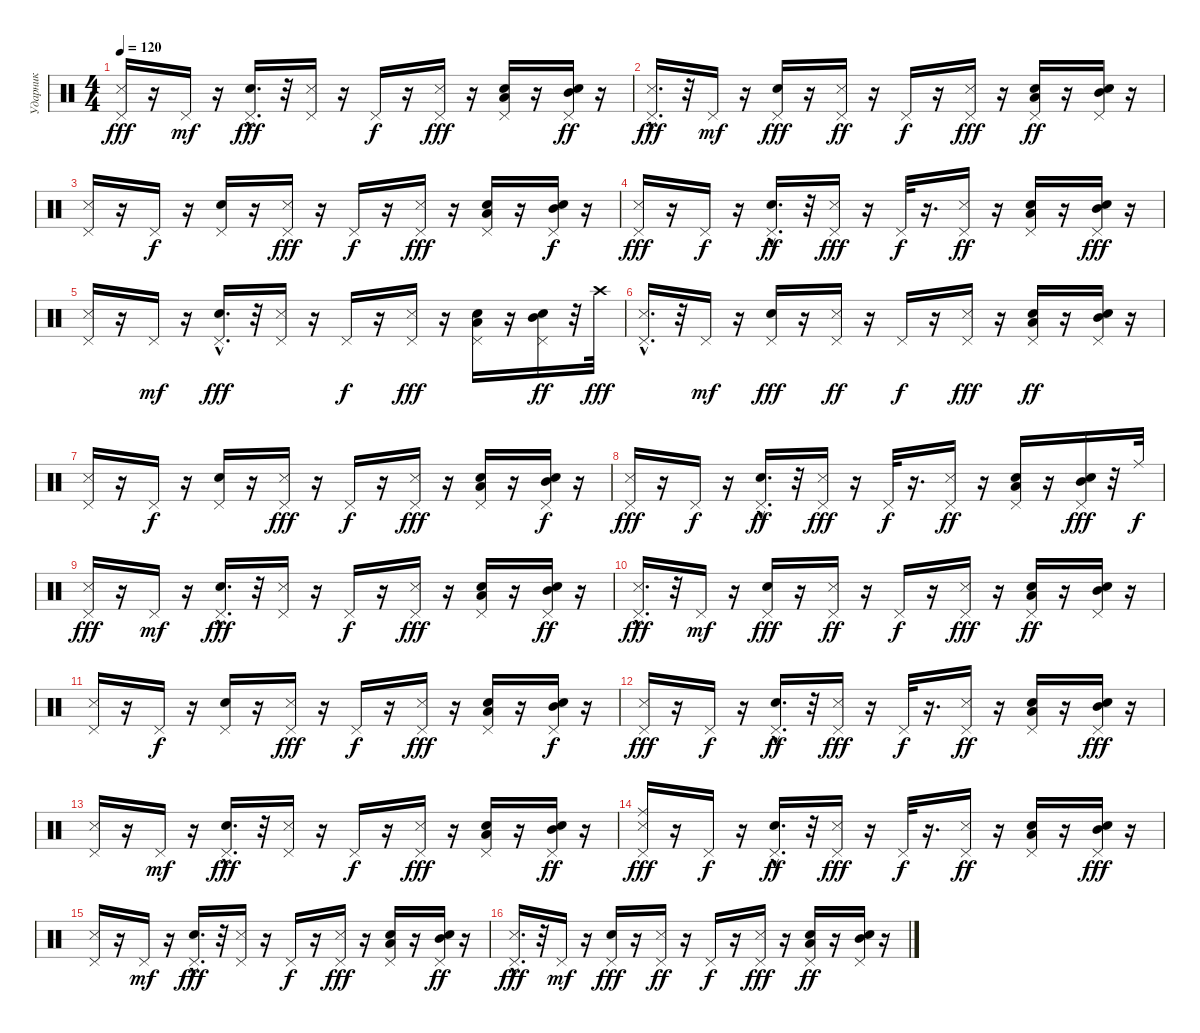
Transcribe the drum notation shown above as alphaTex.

\track ("Ударник" "Ударник") {instrument percussion}
\staff {score}
\articulation defaults
\ts (4 4)
\tempo 120
\clef neutral
\ks c
("Pedal Hi-Hat (hit)" "Metronome (hit)").16{dy fff} r.16 "Pedal Hi-Hat (hit)".16{dy mf} r.16 ("Pedal Hi-Hat (hit)" "Snare (hit) 2"{hac}).16{d dy fff} r.32 ("Pedal Hi-Hat (hit)" "Metronome (hit)").16 r.16 "Pedal Hi-Hat (hit)".16{dy f} r.16 ("Pedal Hi-Hat (hit)" "Metronome (hit)").16{dy fff} r.16 ("Low Tom (hit)" "Pedal Hi-Hat (hit)" "Snare (hit) 2").16 r.16 ("Mid Tom (hit)" "Pedal Hi-Hat (hit)" "Snare (hit) 2").16{dy ff} r.16 |
("Pedal Hi-Hat (hit)" "Metronome (hit)"{hac}).16{d dy fff} r.32 "Pedal Hi-Hat (hit)".16{dy mf} r.16 ("Pedal Hi-Hat (hit)" "Snare (hit) 2").16{dy fff} r.16 ("Metronome (hit)" "Pedal Hi-Hat (hit)").16{dy ff} r.16 "Pedal Hi-Hat (hit)".16{dy f} r.16 ("Metronome (hit)" "Pedal Hi-Hat (hit)").16{dy fff} r.16 ("Snare (hit) 2" "Low Tom (hit)" "Pedal Hi-Hat (hit)").16{dy ff} r.16 ("Snare (hit) 2" "Mid Tom (hit)" "Pedal Hi-Hat (hit)").16 r.16 |
("Metronome (hit)" "Pedal Hi-Hat (hit)").16 r.16 "Pedal Hi-Hat (hit)".16{dy f} r.16 ("Snare (hit) 2" "Pedal Hi-Hat (hit)").16 r.16 ("Metronome (hit)" "Pedal Hi-Hat (hit)").16{dy fff} r.16 "Pedal Hi-Hat (hit)".16{dy f} r.16 ("Metronome (hit)" "Pedal Hi-Hat (hit)").16{dy fff} r.16 ("Snare (hit) 2" "Low Tom (hit)" "Pedal Hi-Hat (hit)").16 r.16 ("Snare (hit) 2" "Mid Tom (hit)" "Pedal Hi-Hat (hit)").16{dy f} r.16 |
("Pedal Hi-Hat (hit)" "Metronome (hit)").16{dy fff} r.16 "Pedal Hi-Hat (hit)".16{dy f} r.16 ("Snare (hit) 2"{hac} "Pedal Hi-Hat (hit)").16{d dy ff} r.32 ("Metronome (hit)" "Pedal Hi-Hat (hit)").16{dy fff} r.16 "Pedal Hi-Hat (hit)".32{dy f} r.16{d} ("Metronome (hit)" "Pedal Hi-Hat (hit)").16{dy ff} r.16 ("Low Tom (hit)" "Snare (hit) 2" "Pedal Hi-Hat (hit)").16 r.16 ("Mid Tom (hit)" "Snare (hit) 2" "Pedal Hi-Hat (hit)").16{dy fff} r.16 |
("Pedal Hi-Hat (hit)" "Metronome (hit)").16 r.16 "Pedal Hi-Hat (hit)".16{dy mf} r.16 ("Pedal Hi-Hat (hit)" "Snare (hit) 2"{hac}).16{d dy fff} r.32 ("Pedal Hi-Hat (hit)" "Metronome (hit)").16 r.16 "Pedal Hi-Hat (hit)".16{dy f} r.16 ("Pedal Hi-Hat (hit)" "Metronome (hit)").16{dy fff} r.16 ("Low Tom (hit)" "Pedal Hi-Hat (hit)" "Snare (hit) 2").16 r.16 ("Mid Tom (hit)" "Pedal Hi-Hat (hit)" "Snare (hit) 2").16{dy ff} r.32 "Crash high (hit)".32{dy fff} |
("Pedal Hi-Hat (hit)" "Metronome (hit)"{hac}).16{d} r.32 "Pedal Hi-Hat (hit)".16{dy mf} r.16 ("Pedal Hi-Hat (hit)" "Snare (hit) 2").16{dy fff} r.16 ("Metronome (hit)" "Pedal Hi-Hat (hit)").16{dy ff} r.16 "Pedal Hi-Hat (hit)".16{dy f} r.16 ("Metronome (hit)" "Pedal Hi-Hat (hit)").16{dy fff} r.16 ("Snare (hit) 2" "Low Tom (hit)" "Pedal Hi-Hat (hit)").16{dy ff} r.16 ("Snare (hit) 2" "Mid Tom (hit)" "Pedal Hi-Hat (hit)").16 r.16 |
("Metronome (hit)" "Pedal Hi-Hat (hit)").16 r.16 "Pedal Hi-Hat (hit)".16{dy f} r.16 ("Snare (hit) 2" "Pedal Hi-Hat (hit)").16 r.16 ("Metronome (hit)" "Pedal Hi-Hat (hit)").16{dy fff} r.16 "Pedal Hi-Hat (hit)".16{dy f} r.16 ("Metronome (hit)" "Pedal Hi-Hat (hit)").16{dy fff} r.16 ("Snare (hit) 2" "Low Tom (hit)" "Pedal Hi-Hat (hit)").16 r.16 ("Snare (hit) 2" "Mid Tom (hit)" "Pedal Hi-Hat (hit)").16{dy f} r.16 |
("Pedal Hi-Hat (hit)" "Metronome (hit)").16{dy fff} r.16 "Pedal Hi-Hat (hit)".16{dy f} r.16 ("Snare (hit) 2"{hac} "Pedal Hi-Hat (hit)").16{d dy ff} r.32 ("Metronome (hit)" "Pedal Hi-Hat (hit)").16{dy fff} r.16 "Pedal Hi-Hat (hit)".32{dy f} r.16{d} ("Metronome (hit)" "Pedal Hi-Hat (hit)").16{dy ff} r.16 ("Low Tom (hit)" "Snare (hit) 2" "Pedal Hi-Hat (hit)").16 r.16 ("Mid Tom (hit)" "Snare (hit) 2" "Pedal Hi-Hat (hit)").16{dy fff} r.32 "Ride (middle)".32{dy f} |
("Pedal Hi-Hat (hit)" "Metronome (hit)").16{dy fff} r.16 "Pedal Hi-Hat (hit)".16{dy mf} r.16 ("Pedal Hi-Hat (hit)" "Snare (hit) 2"{hac}).16{d dy fff} r.32 ("Pedal Hi-Hat (hit)" "Metronome (hit)").16 r.16 "Pedal Hi-Hat (hit)".16{dy f} r.16 ("Pedal Hi-Hat (hit)" "Metronome (hit)").16{dy fff} r.16 ("Low Tom (hit)" "Pedal Hi-Hat (hit)" "Snare (hit) 2").16 r.16 ("Mid Tom (hit)" "Pedal Hi-Hat (hit)" "Snare (hit) 2").16{dy ff} r.16 |
("Pedal Hi-Hat (hit)" "Metronome (hit)"{hac}).16{d dy fff} r.32 "Pedal Hi-Hat (hit)".16{dy mf} r.16 ("Pedal Hi-Hat (hit)" "Snare (hit) 2").16{dy fff} r.16 ("Metronome (hit)" "Pedal Hi-Hat (hit)").16{dy ff} r.16 "Pedal Hi-Hat (hit)".16{dy f} r.16 ("Metronome (hit)" "Pedal Hi-Hat (hit)").16{dy fff} r.16 ("Snare (hit) 2" "Low Tom (hit)" "Pedal Hi-Hat (hit)").16{dy ff} r.16 ("Snare (hit) 2" "Mid Tom (hit)" "Pedal Hi-Hat (hit)").16 r.16 |
("Metronome (hit)" "Pedal Hi-Hat (hit)").16 r.16 "Pedal Hi-Hat (hit)".16{dy f} r.16 ("Snare (hit) 2" "Pedal Hi-Hat (hit)").16 r.16 ("Metronome (hit)" "Pedal Hi-Hat (hit)").16{dy fff} r.16 "Pedal Hi-Hat (hit)".16{dy f} r.16 ("Metronome (hit)" "Pedal Hi-Hat (hit)").16{dy fff} r.16 ("Snare (hit) 2" "Low Tom (hit)" "Pedal Hi-Hat (hit)").16 r.16 ("Snare (hit) 2" "Mid Tom (hit)" "Pedal Hi-Hat (hit)").16{dy f} r.16 |
("Pedal Hi-Hat (hit)" "Metronome (hit)").16{dy fff} r.16 "Pedal Hi-Hat (hit)".16{dy f} r.16 ("Snare (hit) 2"{hac} "Pedal Hi-Hat (hit)").16{d dy ff} r.32 ("Metronome (hit)" "Pedal Hi-Hat (hit)").16{dy fff} r.16 "Pedal Hi-Hat (hit)".32{dy f} r.16{d} ("Metronome (hit)" "Pedal Hi-Hat (hit)").16{dy ff} r.16 ("Low Tom (hit)" "Snare (hit) 2" "Pedal Hi-Hat (hit)").16 r.16 ("Mid Tom (hit)" "Snare (hit) 2" "Pedal Hi-Hat (hit)").16{dy fff} r.16 |
("Pedal Hi-Hat (hit)" "Metronome (hit)").16 r.16 "Pedal Hi-Hat (hit)".16{dy mf} r.16 ("Pedal Hi-Hat (hit)" "Snare (hit) 2"{hac}).16{d dy fff} r.32 ("Pedal Hi-Hat (hit)" "Metronome (hit)").16 r.16 "Pedal Hi-Hat (hit)".16{dy f} r.16 ("Pedal Hi-Hat (hit)" "Metronome (hit)").16{dy fff} r.16 ("Low Tom (hit)" "Pedal Hi-Hat (hit)" "Snare (hit) 2").16 r.16 ("Mid Tom (hit)" "Pedal Hi-Hat (hit)" "Snare (hit) 2").16{dy ff} r.16 |
("Ride (middle)" "Pedal Hi-Hat (hit)" "Metronome (hit)").16{dy fff} r.16 "Pedal Hi-Hat (hit)".16{dy f} r.16 ("Snare (hit) 2"{hac} "Pedal Hi-Hat (hit)").16{d dy ff} r.32 ("Metronome (hit)" "Pedal Hi-Hat (hit)").16{dy fff} r.16 "Pedal Hi-Hat (hit)".32{dy f} r.16{d} ("Metronome (hit)" "Pedal Hi-Hat (hit)").16{dy ff} r.16 ("Low Tom (hit)" "Snare (hit) 2" "Pedal Hi-Hat (hit)").16 r.16 ("Mid Tom (hit)" "Snare (hit) 2" "Pedal Hi-Hat (hit)").16{dy fff} r.16 |
("Pedal Hi-Hat (hit)" "Metronome (hit)").16 r.16 "Pedal Hi-Hat (hit)".16{dy mf} r.16 ("Pedal Hi-Hat (hit)" "Snare (hit) 2"{hac}).16{d dy fff} r.32 ("Pedal Hi-Hat (hit)" "Metronome (hit)").16 r.16 "Pedal Hi-Hat (hit)".16{dy f} r.16 ("Pedal Hi-Hat (hit)" "Metronome (hit)").16{dy fff} r.16 ("Low Tom (hit)" "Pedal Hi-Hat (hit)" "Snare (hit) 2").16 r.16 ("Mid Tom (hit)" "Pedal Hi-Hat (hit)" "Snare (hit) 2").16{dy ff} r.16 |
("Pedal Hi-Hat (hit)" "Metronome (hit)"{hac}).16{d dy fff} r.32 "Pedal Hi-Hat (hit)".16{dy mf} r.16 ("Pedal Hi-Hat (hit)" "Snare (hit) 2").16{dy fff} r.16 ("Metronome (hit)" "Pedal Hi-Hat (hit)").16{dy ff} r.16 "Pedal Hi-Hat (hit)".16{dy f} r.16 ("Metronome (hit)" "Pedal Hi-Hat (hit)").16{dy fff} r.16 ("Snare (hit) 2" "Low Tom (hit)" "Pedal Hi-Hat (hit)").16{dy ff} r.16 ("Snare (hit) 2" "Mid Tom (hit)" "Pedal Hi-Hat (hit)").16 r.16
